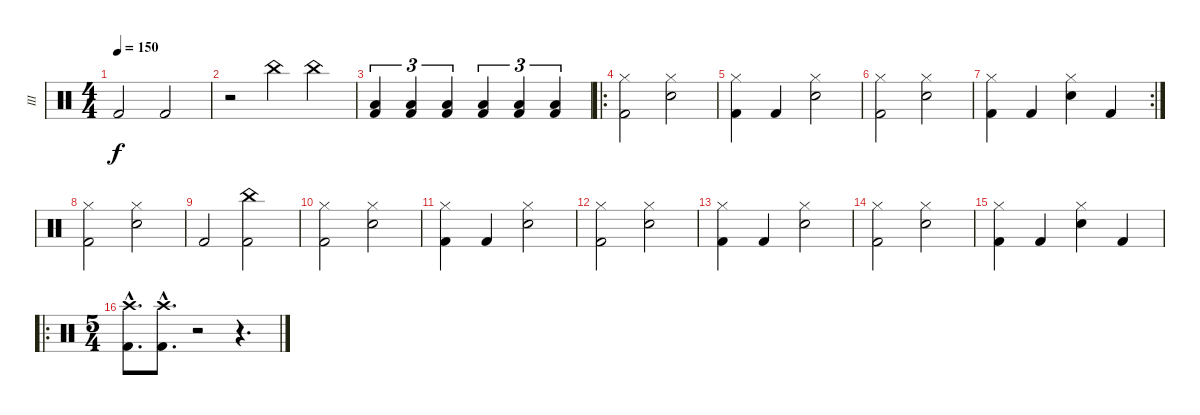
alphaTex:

\track ("III" "III") {instrument percussion}
\staff {score}
\articulation defaults
\ts (4 4)
\tempo 150
\clef neutral
\ks c "Kick (hit) 2".2{dy f} "Kick (hit) 2".2
|
r.2 "China (hit)".4 "China (hit)".4 |
("Kick (hit) 2" "Low Floor Tom (hit)").4{tu (3 2)} ("Kick (hit) 2" "Low Floor Tom (hit)").4{tu (3 2)} ("Kick (hit) 2" "Low Floor Tom (hit)").4{tu (3 2)} ("Kick (hit) 2" "Low Tom (hit)").4{tu (3 2)} ("Kick (hit) 2" "Low Tom (hit)").4{tu (3 2)} ("Kick (hit) 2" "Low Tom (hit)").4{tu (3 2)} |
\ro
("Hi-Hat (closed)" "Kick (hit) 2").2 ("Hi-Hat (closed)" "Snare (hit) 2").2 |
("Hi-Hat (closed)" "Kick (hit) 2").4 "Kick (hit) 2".4 ("Hi-Hat (closed)" "Snare (hit) 2").2 |
("Hi-Hat (closed)" "Kick (hit) 2").2 ("Hi-Hat (closed)" "Snare (hit) 2").2 |
\rc 2
("Hi-Hat (closed)" "Kick (hit) 2").4 "Kick (hit) 2".4 ("Hi-Hat (closed)" "Snare (hit) 2").4 "Kick (hit) 2".4 |
("Hi-Hat (closed)" "Kick (hit) 2").2 ("Hi-Hat (closed)" "Snare (hit) 2").2 |
"Kick (hit) 2".2 ("China (hit)" "Kick (hit) 2").2 |
("Hi-Hat (closed)" "Kick (hit) 2").2 ("Hi-Hat (closed)" "Snare (hit) 2").2 |
("Hi-Hat (closed)" "Kick (hit) 2").4 "Kick (hit) 2".4 ("Hi-Hat (closed)" "Snare (hit) 2").2 |
("Hi-Hat (closed)" "Kick (hit) 2").2 ("Hi-Hat (closed)" "Snare (hit) 2").2 |
("Hi-Hat (closed)" "Kick (hit) 2").4 "Kick (hit) 2".4 ("Hi-Hat (closed)" "Snare (hit) 2").2 |
("Hi-Hat (closed)" "Kick (hit) 2").2 ("Hi-Hat (closed)" "Snare (hit) 2").2 |
("Hi-Hat (closed)" "Kick (hit) 2").4 "Kick (hit) 2".4 ("Hi-Hat (closed)" "Snare (hit) 2").4 "Kick (hit) 2".4 |
\ro
\ts (5 4)
("Crash high (hit)"{hac} "Kick (hit) 2"{hac}).8{d} ("Crash high (hit)"{hac} "Kick (hit) 2"{hac}).8{d} r.2 r.4{d}
